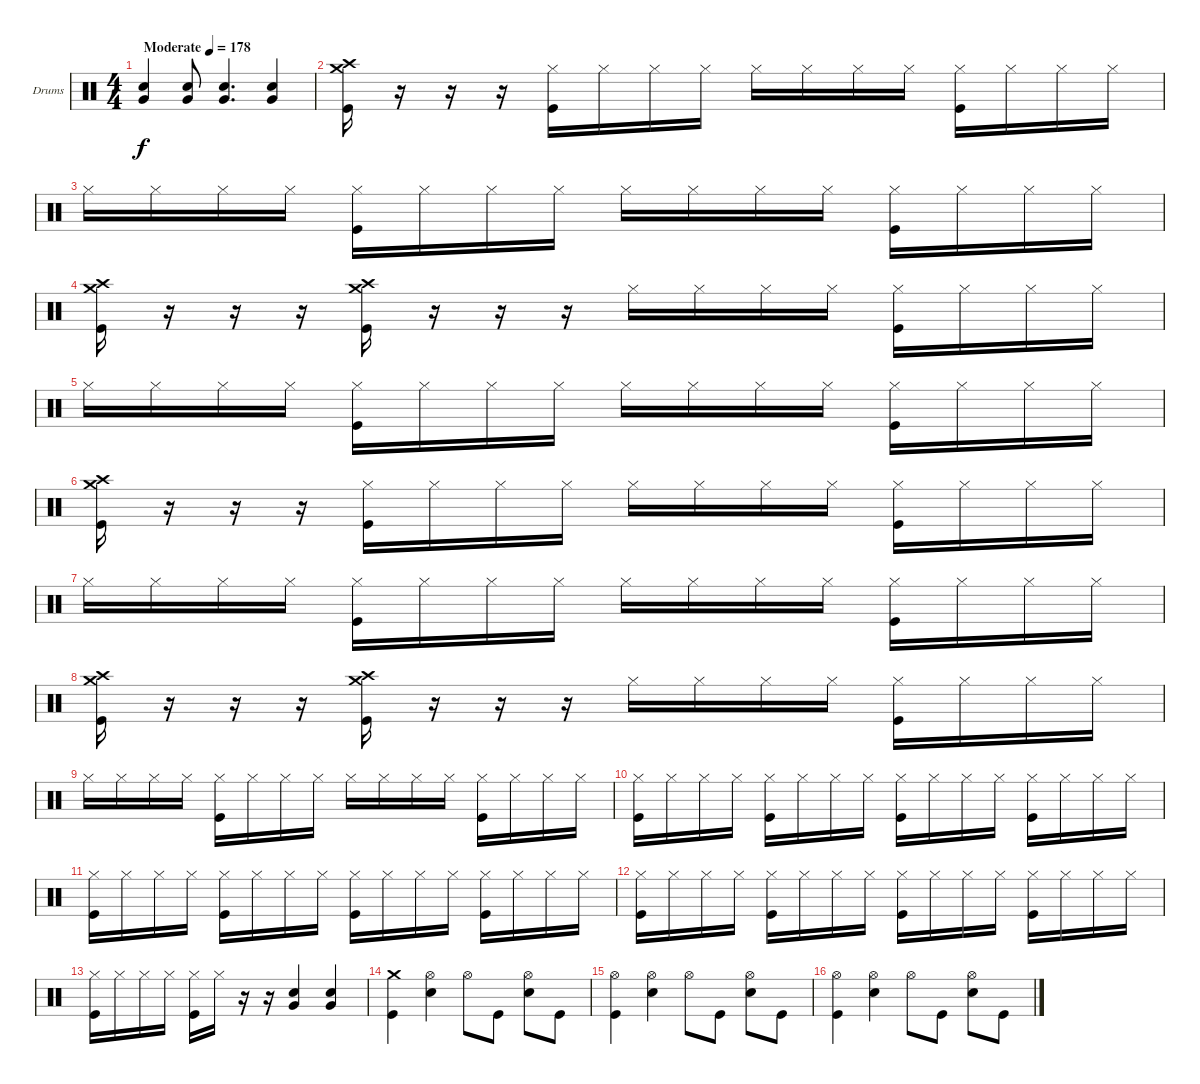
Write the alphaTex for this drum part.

\bracketExtendMode groupsimilarinstruments
\firstSystemTrackNameOrientation horizontal
\otherSystemsTrackNameOrientation horizontal
\track ("Drumkit" "Drums") {instrument percussion}
\staff {score}
\articulation defaults
\ts (4 4)
\beaming (8 2 2 2 2)
\tempo (178 "Moderate")
\clef neutral
\ks c
("Snare (hit) 2" "Very Low Tom (hit)").4{dy f} ("Snare (hit) 2" "Very Low Tom (hit)").8 ("Snare (hit) 2" "Very Low Tom (hit)").4{d} ("Snare (hit) 2" "Very Low Tom (hit)").4 |
("Crash medium (hit)" "Crash high (hit)" "Kick (hit)").16 r.16 r.16 r.16 ("Hi-Hat (closed)" "Kick (hit)").16 "Hi-Hat (closed)".16 "Hi-Hat (closed)".16 "Hi-Hat (closed)".16 "Hi-Hat (closed)".16 "Hi-Hat (closed)".16 "Hi-Hat (closed)".16 "Hi-Hat (closed)".16 ("Hi-Hat (closed)" "Kick (hit)").16 "Hi-Hat (closed)".16 "Hi-Hat (closed)".16 "Hi-Hat (closed)".16 |
"Hi-Hat (closed)".16 "Hi-Hat (closed)".16 "Hi-Hat (closed)".16 "Hi-Hat (closed)".16 ("Hi-Hat (closed)" "Kick (hit)").16 "Hi-Hat (closed)".16 "Hi-Hat (closed)".16 "Hi-Hat (closed)".16 "Hi-Hat (closed)".16 "Hi-Hat (closed)".16 "Hi-Hat (closed)".16 "Hi-Hat (closed)".16 ("Hi-Hat (closed)" "Kick (hit)").16 "Hi-Hat (closed)".16 "Hi-Hat (closed)".16 "Hi-Hat (closed)".16 |
("Crash medium (hit)" "Crash high (hit)" "Kick (hit)").16 r.16 r.16 r.16 ("Crash medium (hit)" "Crash high (hit)" "Kick (hit)").16 r.16 r.16 r.16 "Hi-Hat (closed)".16 "Hi-Hat (closed)".16 "Hi-Hat (closed)".16 "Hi-Hat (closed)".16 ("Hi-Hat (closed)" "Kick (hit)").16 "Hi-Hat (closed)".16 "Hi-Hat (closed)".16 "Hi-Hat (closed)".16 |
"Hi-Hat (closed)".16 "Hi-Hat (closed)".16 "Hi-Hat (closed)".16 "Hi-Hat (closed)".16 ("Hi-Hat (closed)" "Kick (hit)").16 "Hi-Hat (closed)".16 "Hi-Hat (closed)".16 "Hi-Hat (closed)".16 "Hi-Hat (closed)".16 "Hi-Hat (closed)".16 "Hi-Hat (closed)".16 "Hi-Hat (closed)".16 ("Hi-Hat (closed)" "Kick (hit)").16 "Hi-Hat (closed)".16 "Hi-Hat (closed)".16 "Hi-Hat (closed)".16 |
("Crash medium (hit)" "Crash high (hit)" "Kick (hit)").16 r.16 r.16 r.16 ("Hi-Hat (closed)" "Kick (hit)").16 "Hi-Hat (closed)".16 "Hi-Hat (closed)".16 "Hi-Hat (closed)".16 "Hi-Hat (closed)".16 "Hi-Hat (closed)".16 "Hi-Hat (closed)".16 "Hi-Hat (closed)".16 ("Hi-Hat (closed)" "Kick (hit)").16 "Hi-Hat (closed)".16 "Hi-Hat (closed)".16 "Hi-Hat (closed)".16 |
"Hi-Hat (closed)".16 "Hi-Hat (closed)".16 "Hi-Hat (closed)".16 "Hi-Hat (closed)".16 ("Hi-Hat (closed)" "Kick (hit)").16 "Hi-Hat (closed)".16 "Hi-Hat (closed)".16 "Hi-Hat (closed)".16 "Hi-Hat (closed)".16 "Hi-Hat (closed)".16 "Hi-Hat (closed)".16 "Hi-Hat (closed)".16 ("Hi-Hat (closed)" "Kick (hit)").16 "Hi-Hat (closed)".16 "Hi-Hat (closed)".16 "Hi-Hat (closed)".16 |
("Crash medium (hit)" "Crash high (hit)" "Kick (hit)").16 r.16 r.16 r.16 ("Crash medium (hit)" "Crash high (hit)" "Kick (hit)").16 r.16 r.16 r.16 "Hi-Hat (closed)".16 "Hi-Hat (closed)".16 "Hi-Hat (closed)".16 "Hi-Hat (closed)".16 ("Hi-Hat (closed)" "Kick (hit)").16 "Hi-Hat (closed)".16 "Hi-Hat (closed)".16 "Hi-Hat (closed)".16 |
"Hi-Hat (closed)".16 "Hi-Hat (closed)".16 "Hi-Hat (closed)".16 "Hi-Hat (closed)".16 ("Hi-Hat (closed)" "Kick (hit)").16 "Hi-Hat (closed)".16 "Hi-Hat (closed)".16 "Hi-Hat (closed)".16 "Hi-Hat (closed)".16 "Hi-Hat (closed)".16 "Hi-Hat (closed)".16 "Hi-Hat (closed)".16 ("Hi-Hat (closed)" "Kick (hit)").16 "Hi-Hat (closed)".16 "Hi-Hat (closed)".16 "Hi-Hat (closed)".16 |
("Hi-Hat (closed)" "Kick (hit)").16 "Hi-Hat (closed)".16 "Hi-Hat (closed)".16 "Hi-Hat (closed)".16 ("Hi-Hat (closed)" "Kick (hit)").16 "Hi-Hat (closed)".16 "Hi-Hat (closed)".16 "Hi-Hat (closed)".16 ("Hi-Hat (closed)" "Kick (hit)").16 "Hi-Hat (closed)".16 "Hi-Hat (closed)".16 "Hi-Hat (closed)".16 ("Hi-Hat (closed)" "Kick (hit)").16 "Hi-Hat (closed)".16 "Hi-Hat (closed)".16 "Hi-Hat (closed)".16 |
("Hi-Hat (closed)" "Kick (hit)").16 "Hi-Hat (closed)".16 "Hi-Hat (closed)".16 "Hi-Hat (closed)".16 ("Hi-Hat (closed)" "Kick (hit)").16 "Hi-Hat (closed)".16 "Hi-Hat (closed)".16 "Hi-Hat (closed)".16 ("Hi-Hat (closed)" "Kick (hit)").16 "Hi-Hat (closed)".16 "Hi-Hat (closed)".16 "Hi-Hat (closed)".16 ("Hi-Hat (closed)" "Kick (hit)").16 "Hi-Hat (closed)".16 "Hi-Hat (closed)".16 "Hi-Hat (closed)".16 |
("Hi-Hat (closed)" "Kick (hit)").16 "Hi-Hat (closed)".16 "Hi-Hat (closed)".16 "Hi-Hat (closed)".16 ("Hi-Hat (closed)" "Kick (hit)").16 "Hi-Hat (closed)".16 "Hi-Hat (closed)".16 "Hi-Hat (closed)".16 ("Hi-Hat (closed)" "Kick (hit)").16 "Hi-Hat (closed)".16 "Hi-Hat (closed)".16 "Hi-Hat (closed)".16 ("Hi-Hat (closed)" "Kick (hit)").16 "Hi-Hat (closed)".16 "Hi-Hat (closed)".16 "Hi-Hat (closed)".16 |
("Hi-Hat (closed)" "Kick (hit)").16 "Hi-Hat (closed)".16 "Hi-Hat (closed)".16 "Hi-Hat (closed)".16 ("Hi-Hat (closed)" "Kick (hit)").16 "Hi-Hat (closed)".16 r.16 r.16 ("Snare (hit) 2" "Very Low Tom (hit)").4 ("Snare (hit) 2" "Very Low Tom (hit)").4 |
("Crash medium (hit)" "Kick (hit)").4 ("Hi-Hat (open)" "Snare (hit) 2").4 "Hi-Hat (open)".8 "Kick (hit)".8 ("Hi-Hat (open)" "Snare (hit) 2").8 "Kick (hit)".8 |
("Hi-Hat (open)" "Kick (hit)").4 ("Hi-Hat (open)" "Snare (hit) 2").4 "Hi-Hat (open)".8 "Kick (hit)".8 ("Hi-Hat (open)" "Snare (hit) 2").8 "Kick (hit)".8 |
("Hi-Hat (open)" "Kick (hit)").4 ("Hi-Hat (open)" "Snare (hit) 2").4 "Hi-Hat (open)".8 "Kick (hit)".8 ("Hi-Hat (open)" "Snare (hit) 2").8 "Kick (hit)".8
